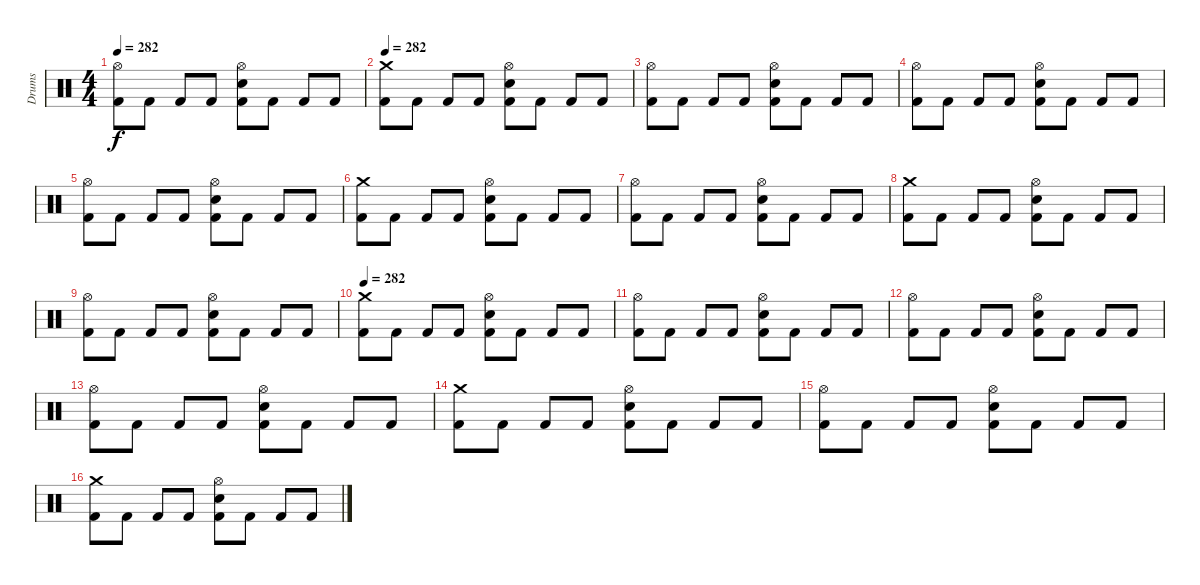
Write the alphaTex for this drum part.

\track ("Drums" "Drums") {instrument percussion}
\staff {score}
\articulation defaults
\ts (4 4)
\tempo 282
\clef neutral
\ks c
("Hi-Hat (open)" "Kick (hit) 2").8{dy f} "Kick (hit) 2".8 "Kick (hit) 2".8 "Kick (hit) 2".8 ("Hi-Hat (open)" "Snare (hit) 2" "Kick (hit) 2").8 "Kick (hit) 2".8 "Kick (hit) 2".8 "Kick (hit) 2".8 |
\tempo 282
("Crash medium (hit)" "Kick (hit) 2").8 "Kick (hit) 2".8 "Kick (hit) 2".8 "Kick (hit) 2".8 ("Hi-Hat (open)" "Snare (hit) 2" "Kick (hit) 2").8 "Kick (hit) 2".8 "Kick (hit) 2".8 "Kick (hit) 2".8 |
("Hi-Hat (open)" "Kick (hit) 2").8 "Kick (hit) 2".8 "Kick (hit) 2".8 "Kick (hit) 2".8 ("Hi-Hat (open)" "Snare (hit) 2" "Kick (hit) 2").8 "Kick (hit) 2".8 "Kick (hit) 2".8 "Kick (hit) 2".8 |
("Hi-Hat (open)" "Kick (hit) 2").8 "Kick (hit) 2".8 "Kick (hit) 2".8 "Kick (hit) 2".8 ("Hi-Hat (open)" "Snare (hit) 2" "Kick (hit) 2").8 "Kick (hit) 2".8 "Kick (hit) 2".8 "Kick (hit) 2".8 |
("Hi-Hat (open)" "Kick (hit) 2").8 "Kick (hit) 2".8 "Kick (hit) 2".8 "Kick (hit) 2".8 ("Hi-Hat (open)" "Snare (hit) 2" "Kick (hit) 2").8 "Kick (hit) 2".8 "Kick (hit) 2".8 "Kick (hit) 2".8 |
("Crash medium (hit)" "Kick (hit) 2").8 "Kick (hit) 2".8 "Kick (hit) 2".8 "Kick (hit) 2".8 ("Hi-Hat (open)" "Snare (hit) 2" "Kick (hit) 2").8 "Kick (hit) 2".8 "Kick (hit) 2".8 "Kick (hit) 2".8 |
("Hi-Hat (open)" "Kick (hit) 2").8 "Kick (hit) 2".8 "Kick (hit) 2".8 "Kick (hit) 2".8 ("Hi-Hat (open)" "Snare (hit) 2" "Kick (hit) 2").8 "Kick (hit) 2".8 "Kick (hit) 2".8 "Kick (hit) 2".8 |
("Crash medium (hit)" "Kick (hit) 2").8 "Kick (hit) 2".8 "Kick (hit) 2".8 "Kick (hit) 2".8 ("Hi-Hat (open)" "Snare (hit) 2" "Kick (hit) 2").8 "Kick (hit) 2".8 "Kick (hit) 2".8 "Kick (hit) 2".8 |
("Hi-Hat (open)" "Kick (hit) 2").8 "Kick (hit) 2".8 "Kick (hit) 2".8 "Kick (hit) 2".8 ("Hi-Hat (open)" "Snare (hit) 2" "Kick (hit) 2").8 "Kick (hit) 2".8 "Kick (hit) 2".8 "Kick (hit) 2".8 |
\tempo 282
("Crash medium (hit)" "Kick (hit) 2").8 "Kick (hit) 2".8 "Kick (hit) 2".8 "Kick (hit) 2".8 ("Hi-Hat (open)" "Snare (hit) 2" "Kick (hit) 2").8 "Kick (hit) 2".8 "Kick (hit) 2".8 "Kick (hit) 2".8 |
("Hi-Hat (open)" "Kick (hit) 2").8 "Kick (hit) 2".8 "Kick (hit) 2".8 "Kick (hit) 2".8 ("Hi-Hat (open)" "Snare (hit) 2" "Kick (hit) 2").8 "Kick (hit) 2".8 "Kick (hit) 2".8 "Kick (hit) 2".8 |
("Hi-Hat (open)" "Kick (hit) 2").8 "Kick (hit) 2".8 "Kick (hit) 2".8 "Kick (hit) 2".8 ("Hi-Hat (open)" "Snare (hit) 2" "Kick (hit) 2").8 "Kick (hit) 2".8 "Kick (hit) 2".8 "Kick (hit) 2".8 |
("Hi-Hat (open)" "Kick (hit) 2").8 "Kick (hit) 2".8 "Kick (hit) 2".8 "Kick (hit) 2".8 ("Hi-Hat (open)" "Snare (hit) 2" "Kick (hit) 2").8 "Kick (hit) 2".8 "Kick (hit) 2".8 "Kick (hit) 2".8 |
("Crash medium (hit)" "Kick (hit) 2").8 "Kick (hit) 2".8 "Kick (hit) 2".8 "Kick (hit) 2".8 ("Hi-Hat (open)" "Snare (hit) 2" "Kick (hit) 2").8 "Kick (hit) 2".8 "Kick (hit) 2".8 "Kick (hit) 2".8 |
("Hi-Hat (open)" "Kick (hit) 2").8 "Kick (hit) 2".8 "Kick (hit) 2".8 "Kick (hit) 2".8 ("Hi-Hat (open)" "Snare (hit) 2" "Kick (hit) 2").8 "Kick (hit) 2".8 "Kick (hit) 2".8 "Kick (hit) 2".8 |
("Crash medium (hit)" "Kick (hit) 2").8 "Kick (hit) 2".8 "Kick (hit) 2".8 "Kick (hit) 2".8 ("Hi-Hat (open)" "Snare (hit) 2" "Kick (hit) 2").8 "Kick (hit) 2".8 "Kick (hit) 2".8 "Kick (hit) 2".8
